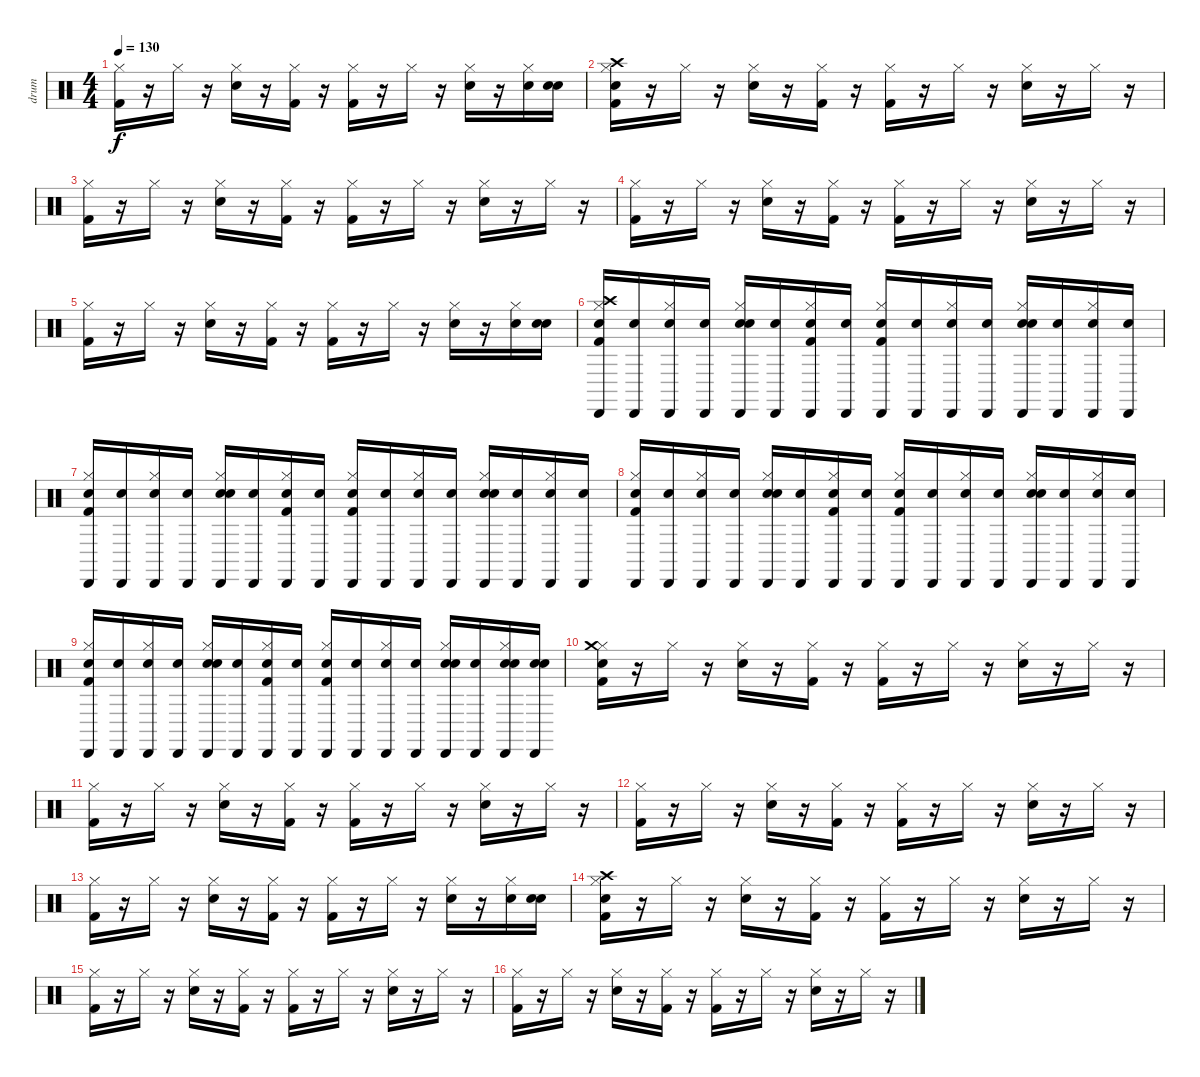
\track ("drum" "drum") {instrument percussion}
\staff {score}
\articulation defaults
\ts (4 4)
\tempo 130
\clef neutral
\ks c
("Kick (hit) 2" "Hi-Hat (closed)").16{dy f} r.16 "Hi-Hat (closed)".16 r.16 ("Snare (hit) 2" "Hi-Hat (closed)").16 r.16 ("Hi-Hat (closed)" "Kick (hit) 2").16 r.16 ("Hi-Hat (closed)" "Kick (hit) 2").16 r.16 "Hi-Hat (closed)".16 r.16 ("Snare (hit) 2" "Hi-Hat (closed)").16 r.16 ("Snare (hit) 2" "Hi-Hat (closed)").16 ("Snare (hit)" "Snare (hit) 2").16 |
("Snare (hit)" "Kick (hit) 2" "Hi-Hat (closed)" "Crash high (hit)").16 r.16 "Hi-Hat (closed)".16 r.16 ("Snare (hit) 2" "Hi-Hat (closed)").16 r.16 ("Kick (hit) 2" "Hi-Hat (closed)").16 r.16 ("Kick (hit) 2" "Hi-Hat (closed)").16 r.16 "Hi-Hat (closed)".16 r.16 ("Snare (hit) 2" "Hi-Hat (closed)").16 r.16 "Hi-Hat (closed)".16 r.16 |
("Kick (hit) 2" "Hi-Hat (closed)").16 r.16 "Hi-Hat (closed)".16 r.16 ("Snare (hit) 2" "Hi-Hat (closed)").16 r.16 ("Hi-Hat (closed)" "Kick (hit) 2").16 r.16 ("Hi-Hat (closed)" "Kick (hit) 2").16 r.16 "Hi-Hat (closed)".16 r.16 ("Snare (hit) 2" "Hi-Hat (closed)").16 r.16 "Hi-Hat (closed)".16 r.16 |
("Hi-Hat (closed)" "Kick (hit) 2").16 r.16 "Hi-Hat (closed)".16 r.16 ("Snare (hit) 2" "Hi-Hat (closed)").16 r.16 ("Kick (hit) 2" "Hi-Hat (closed)").16 r.16 ("Kick (hit) 2" "Hi-Hat (closed)").16 r.16 "Hi-Hat (closed)".16 r.16 ("Snare (hit) 2" "Hi-Hat (closed)").16 r.16 "Hi-Hat (closed)".16 r.16 |
("Hi-Hat (closed)" "Kick (hit) 2").16 r.16 "Hi-Hat (closed)".16 r.16 ("Snare (hit) 2" "Hi-Hat (closed)").16 r.16 ("Hi-Hat (closed)" "Kick (hit) 2").16 r.16 ("Kick (hit) 2" "Hi-Hat (closed)").16 r.16 "Hi-Hat (closed)".16 r.16 ("Snare (hit) 2" "Hi-Hat (closed)").16 r.16 ("Snare (hit) 2" "Hi-Hat (closed)").16 ("Snare (hit)" "Snare (hit) 2").16 |
("Snare (hit)" "Kick (hit) 2" "Hi-Hat (closed)" "Crash high (hit)" "Cabasa (hit)").16 ("Snare (hit)" "Cabasa (hit)").16 ("Snare (hit)" "Cabasa (hit)" "Hi-Hat (closed)").16 ("Snare (hit)" "Cabasa (hit)").16 ("Snare (hit)" "Cabasa (hit)" "Snare (hit) 2" "Hi-Hat (closed)").16 ("Snare (hit)" "Cabasa (hit)").16 ("Snare (hit)" "Kick (hit) 2" "Hi-Hat (closed)" "Cabasa (hit)").16 ("Snare (hit)" "Cabasa (hit)").16 ("Snare (hit)" "Hi-Hat (closed)" "Cabasa (hit)" "Kick (hit) 2").16 ("Snare (hit)" "Cabasa (hit)").16 ("Snare (hit)" "Cabasa (hit)" "Hi-Hat (closed)").16 ("Snare (hit)" "Cabasa (hit)").16 ("Snare (hit)" "Hi-Hat (closed)" "Cabasa (hit)" "Snare (hit) 2").16 ("Snare (hit)" "Cabasa (hit)").16 ("Snare (hit)" "Hi-Hat (closed)" "Cabasa (hit)").16 ("Snare (hit)" "Cabasa (hit)").16 |
("Snare (hit)" "Cabasa (hit)" "Hi-Hat (closed)" "Kick (hit) 2").16 ("Snare (hit)" "Cabasa (hit)").16 ("Snare (hit)" "Cabasa (hit)" "Hi-Hat (closed)").16 ("Snare (hit)" "Cabasa (hit)").16 ("Snare (hit)" "Hi-Hat (closed)" "Snare (hit) 2" "Cabasa (hit)").16 ("Snare (hit)" "Cabasa (hit)").16 ("Snare (hit)" "Cabasa (hit)" "Kick (hit) 2" "Hi-Hat (closed)").16 ("Snare (hit)" "Cabasa (hit)").16 ("Snare (hit)" "Hi-Hat (closed)" "Kick (hit) 2" "Cabasa (hit)").16 ("Snare (hit)" "Cabasa (hit)").16 ("Snare (hit)" "Hi-Hat (closed)" "Cabasa (hit)").16 ("Snare (hit)" "Cabasa (hit)").16 ("Snare (hit)" "Snare (hit) 2" "Hi-Hat (closed)" "Cabasa (hit)").16 ("Snare (hit)" "Cabasa (hit)").16 ("Snare (hit)" "Hi-Hat (closed)" "Cabasa (hit)").16 ("Snare (hit)" "Cabasa (hit)").16 |
("Snare (hit)" "Hi-Hat (closed)" "Kick (hit) 2" "Cabasa (hit)").16 ("Snare (hit)" "Cabasa (hit)").16 ("Snare (hit)" "Cabasa (hit)" "Hi-Hat (closed)").16 ("Snare (hit)" "Cabasa (hit)").16 ("Snare (hit)" "Snare (hit) 2" "Hi-Hat (closed)" "Cabasa (hit)").16 ("Snare (hit)" "Cabasa (hit)").16 ("Snare (hit)" "Hi-Hat (closed)" "Kick (hit) 2" "Cabasa (hit)").16 ("Snare (hit)" "Cabasa (hit)").16 ("Snare (hit)" "Hi-Hat (closed)" "Cabasa (hit)" "Kick (hit) 2").16 ("Snare (hit)" "Cabasa (hit)").16 ("Snare (hit)" "Hi-Hat (closed)" "Cabasa (hit)").16 ("Snare (hit)" "Cabasa (hit)").16 ("Snare (hit)" "Cabasa (hit)" "Snare (hit) 2" "Hi-Hat (closed)").16 ("Snare (hit)" "Cabasa (hit)").16 ("Snare (hit)" "Hi-Hat (closed)" "Cabasa (hit)").16 ("Snare (hit)" "Cabasa (hit)").16 |
("Snare (hit)" "Kick (hit) 2" "Cabasa (hit)" "Hi-Hat (closed)").16 ("Snare (hit)" "Cabasa (hit)").16 ("Snare (hit)" "Hi-Hat (closed)" "Cabasa (hit)").16 ("Snare (hit)" "Cabasa (hit)").16 ("Snare (hit)" "Snare (hit) 2" "Cabasa (hit)" "Hi-Hat (closed)").16 ("Snare (hit)" "Cabasa (hit)").16 ("Snare (hit)" "Cabasa (hit)" "Hi-Hat (closed)" "Kick (hit) 2").16 ("Snare (hit)" "Cabasa (hit)").16 ("Snare (hit)" "Cabasa (hit)" "Hi-Hat (closed)" "Kick (hit) 2").16 ("Snare (hit)" "Cabasa (hit)").16 ("Snare (hit)" "Cabasa (hit)" "Hi-Hat (closed)").16 ("Snare (hit)" "Cabasa (hit)").16 ("Snare (hit)" "Hi-Hat (closed)" "Snare (hit) 2" "Cabasa (hit)").16 ("Snare (hit)" "Cabasa (hit)").16 ("Snare (hit)" "Snare (hit) 2" "Cabasa (hit)" "Hi-Hat (closed)").16 ("Snare (hit)" "Cabasa (hit)" "Snare (hit) 2").16 |
("Snare (hit)" "Kick (hit) 2" "Hi-Hat (closed)" "Crash medium (hit)").16 r.16 "Hi-Hat (closed)".16 r.16 ("Snare (hit) 2" "Hi-Hat (closed)").16 r.16 ("Hi-Hat (closed)" "Kick (hit) 2").16 r.16 ("Hi-Hat (closed)" "Kick (hit) 2").16 r.16 "Hi-Hat (closed)".16 r.16 ("Hi-Hat (closed)" "Snare (hit) 2").16 r.16 "Hi-Hat (closed)".16 r.16 |
("Kick (hit) 2" "Hi-Hat (closed)").16 r.16 "Hi-Hat (closed)".16 r.16 ("Snare (hit) 2" "Hi-Hat (closed)").16 r.16 ("Hi-Hat (closed)" "Kick (hit) 2").16 r.16 ("Hi-Hat (closed)" "Kick (hit) 2").16 r.16 "Hi-Hat (closed)".16 r.16 ("Hi-Hat (closed)" "Snare (hit) 2").16 r.16 "Hi-Hat (closed)".16 r.16 |
("Kick (hit) 2" "Hi-Hat (closed)").16 r.16 "Hi-Hat (closed)".16 r.16 ("Hi-Hat (closed)" "Snare (hit) 2").16 r.16 ("Hi-Hat (closed)" "Kick (hit) 2").16 r.16 ("Hi-Hat (closed)" "Kick (hit) 2").16 r.16 "Hi-Hat (closed)".16 r.16 ("Snare (hit) 2" "Hi-Hat (closed)").16 r.16 "Hi-Hat (closed)".16 r.16 |
("Hi-Hat (closed)" "Kick (hit) 2").16 r.16 "Hi-Hat (closed)".16 r.16 ("Snare (hit) 2" "Hi-Hat (closed)").16 r.16 ("Kick (hit) 2" "Hi-Hat (closed)").16 r.16 ("Hi-Hat (closed)" "Kick (hit) 2").16 r.16 "Hi-Hat (closed)".16 r.16 ("Snare (hit) 2" "Hi-Hat (closed)").16 r.16 ("Snare (hit) 2" "Hi-Hat (closed)").16 ("Snare (hit)" "Snare (hit) 2").16 |
("Snare (hit)" "Hi-Hat (closed)" "Crash high (hit)" "Kick (hit) 2").16 r.16 "Hi-Hat (closed)".16 r.16 ("Hi-Hat (closed)" "Snare (hit) 2").16 r.16 ("Hi-Hat (closed)" "Kick (hit) 2").16 r.16 ("Hi-Hat (closed)" "Kick (hit) 2").16 r.16 "Hi-Hat (closed)".16 r.16 ("Snare (hit) 2" "Hi-Hat (closed)").16 r.16 "Hi-Hat (closed)".16 r.16 |
("Kick (hit) 2" "Hi-Hat (closed)").16 r.16 "Hi-Hat (closed)".16 r.16 ("Snare (hit) 2" "Hi-Hat (closed)").16 r.16 ("Hi-Hat (closed)" "Kick (hit) 2").16 r.16 ("Hi-Hat (closed)" "Kick (hit) 2").16 r.16 "Hi-Hat (closed)".16 r.16 ("Snare (hit) 2" "Hi-Hat (closed)").16 r.16 "Hi-Hat (closed)".16 r.16 |
("Kick (hit) 2" "Hi-Hat (closed)").16 r.16 "Hi-Hat (closed)".16 r.16 ("Hi-Hat (closed)" "Snare (hit) 2").16 r.16 ("Hi-Hat (closed)" "Kick (hit) 2").16 r.16 ("Kick (hit) 2" "Hi-Hat (closed)").16 r.16 "Hi-Hat (closed)".16 r.16 ("Hi-Hat (closed)" "Snare (hit) 2").16 r.16 "Hi-Hat (closed)".16 r.16
